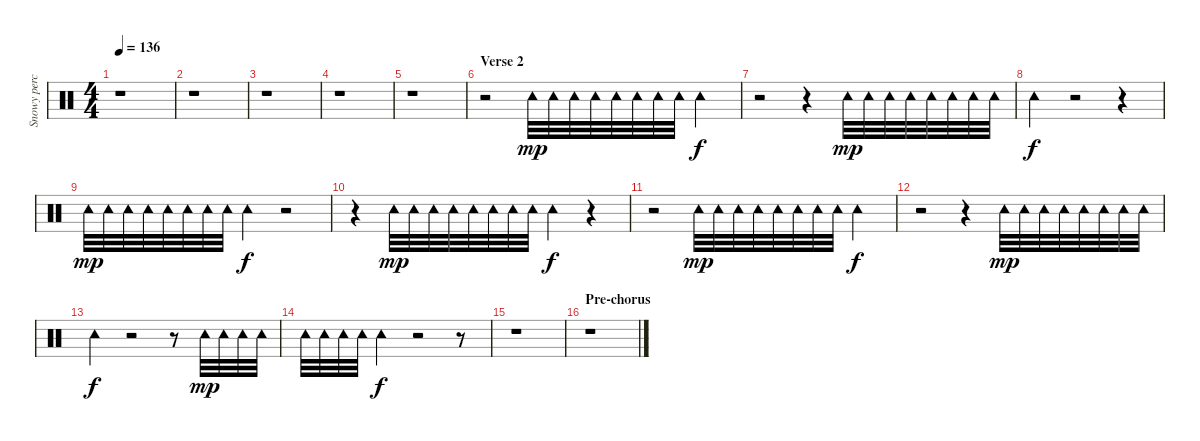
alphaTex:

\track ("Snowy percussion" "Snowy perc") {instrument percussion}
\staff {score}
\articulation defaults
\ts (4 4)
\tempo 136
\clef neutral
\ks c
r.1{dy f} |
r.1 |
r.1 |
r.1 |
r.1 |
\section ("" "Verse 2")
r.2 "Tambourine (hit)".32{dy mp} "Tambourine (hit)".32 "Tambourine (hit)".32 "Tambourine (hit)".32 "Tambourine (hit)".32 "Tambourine (hit)".32 "Tambourine (hit)".32 "Tambourine (hit)".32 "Tambourine (hit)".4{dy f} |
r.2 r.4 "Tambourine (hit)".32{dy mp} "Tambourine (hit)".32 "Tambourine (hit)".32 "Tambourine (hit)".32 "Tambourine (hit)".32 "Tambourine (hit)".32 "Tambourine (hit)".32 "Tambourine (hit)".32 |
"Tambourine (hit)".4{dy f} r.2 r.4 |
"Tambourine (hit)".32{dy mp} "Tambourine (hit)".32 "Tambourine (hit)".32 "Tambourine (hit)".32 "Tambourine (hit)".32 "Tambourine (hit)".32 "Tambourine (hit)".32 "Tambourine (hit)".32 "Tambourine (hit)".4{dy f} r.2 |
r.4 "Tambourine (hit)".32{dy mp} "Tambourine (hit)".32 "Tambourine (hit)".32 "Tambourine (hit)".32 "Tambourine (hit)".32 "Tambourine (hit)".32 "Tambourine (hit)".32 "Tambourine (hit)".32 "Tambourine (hit)".4{dy f} r.4 |
r.2 "Tambourine (hit)".32{dy mp} "Tambourine (hit)".32 "Tambourine (hit)".32 "Tambourine (hit)".32 "Tambourine (hit)".32 "Tambourine (hit)".32 "Tambourine (hit)".32 "Tambourine (hit)".32 "Tambourine (hit)".4{dy f} |
r.2 r.4 "Tambourine (hit)".32{dy mp} "Tambourine (hit)".32 "Tambourine (hit)".32 "Tambourine (hit)".32 "Tambourine (hit)".32 "Tambourine (hit)".32 "Tambourine (hit)".32 "Tambourine (hit)".32 |
"Tambourine (hit)".4{dy f} r.2 r.8 "Tambourine (hit)".32{dy mp} "Tambourine (hit)".32 "Tambourine (hit)".32 "Tambourine (hit)".32 |
"Tambourine (hit)".32 "Tambourine (hit)".32 "Tambourine (hit)".32 "Tambourine (hit)".32 "Tambourine (hit)".4{dy f} r.2 r.8 |
r.1 |
\section ("" "Pre-chorus")
r.1
